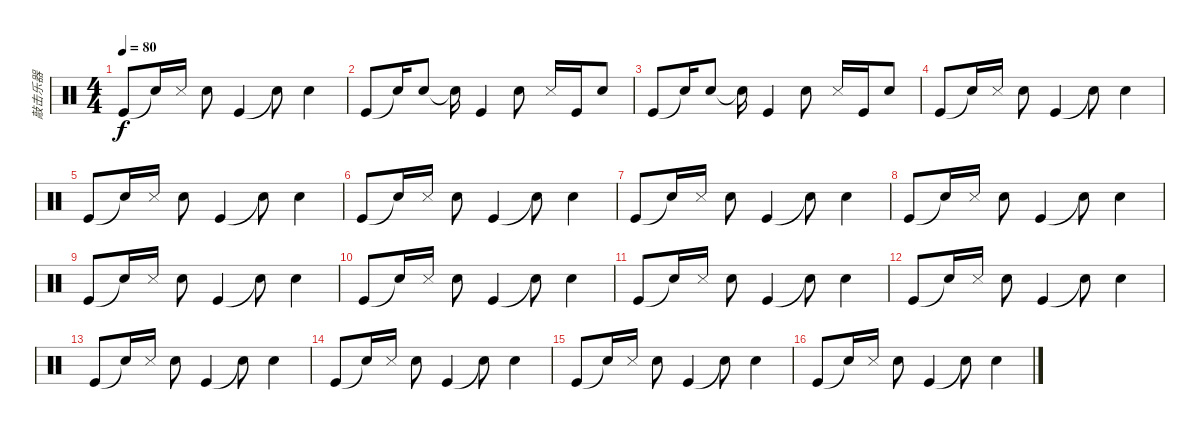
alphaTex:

\track ("敲击乐器" "敲击乐器") {instrument percussion}
\staff {score}
\articulation defaults
\ts (4 4)
\tempo 80
\clef neutral
\ks c "Kick (hit)".8{dy f} "Snare (hit)"{t}.16 "Metronome (hit)".16 "Metronome (bell)".8 "Kick (hit)".4 "Snare (hit)"{t}.8 "Metronome (bell)".4
|
"Kick (hit)".8 "Metronome (bell)"{t}.16 "Metronome (bell)".8 "Snare (hit)"{t}.16 "Kick (hit)".4 "Metronome (bell)".8 "Metronome (hit)".16 "Kick (hit)".16 "Metronome (bell)".8 |
"Kick (hit)".8 "Metronome (bell)"{t}.16 "Metronome (bell)".8 "Snare (hit)"{t}.16 "Kick (hit)".4 "Metronome (bell)".8 "Metronome (hit)".16 "Kick (hit)".16 "Metronome (bell)".8 |
"Kick (hit)".8 "Snare (hit)"{t}.16 "Metronome (hit)".16 "Metronome (bell)".8 "Kick (hit)".4 "Snare (hit)"{t}.8 "Metronome (bell)".4 |
"Kick (hit)".8 "Snare (hit)"{t}.16 "Metronome (hit)".16 "Metronome (bell)".8 "Kick (hit)".4 "Snare (hit)"{t}.8 "Metronome (bell)".4 |
"Kick (hit)".8 "Snare (hit)"{t}.16 "Metronome (hit)".16 "Metronome (bell)".8 "Kick (hit)".4 "Snare (hit)"{t}.8 "Metronome (bell)".4 |
"Kick (hit)".8 "Snare (hit)"{t}.16 "Metronome (hit)".16 "Metronome (bell)".8 "Kick (hit)".4 "Snare (hit)"{t}.8 "Metronome (bell)".4 |
"Kick (hit)".8 "Snare (hit)"{t}.16 "Metronome (hit)".16 "Metronome (bell)".8 "Kick (hit)".4 "Snare (hit)"{t}.8 "Metronome (bell)".4 |
"Kick (hit)".8 "Snare (hit)"{t}.16 "Metronome (hit)".16 "Metronome (bell)".8 "Kick (hit)".4 "Snare (hit)"{t}.8 "Metronome (bell)".4 |
"Kick (hit)".8 "Snare (hit)"{t}.16 "Metronome (hit)".16 "Metronome (bell)".8 "Kick (hit)".4 "Snare (hit)"{t}.8 "Metronome (bell)".4 |
"Kick (hit)".8 "Snare (hit)"{t}.16 "Metronome (hit)".16 "Metronome (bell)".8 "Kick (hit)".4 "Snare (hit)"{t}.8 "Metronome (bell)".4 |
"Kick (hit)".8 "Snare (hit)"{t}.16 "Metronome (hit)".16 "Metronome (bell)".8 "Kick (hit)".4 "Snare (hit)"{t}.8 "Metronome (bell)".4 |
"Kick (hit)".8 "Snare (hit)"{t}.16 "Metronome (hit)".16 "Metronome (bell)".8 "Kick (hit)".4 "Snare (hit)"{t}.8 "Metronome (bell)".4 |
"Kick (hit)".8 "Snare (hit)"{t}.16 "Metronome (hit)".16 "Metronome (bell)".8 "Kick (hit)".4 "Snare (hit)"{t}.8 "Metronome (bell)".4 |
"Kick (hit)".8 "Snare (hit)"{t}.16 "Metronome (hit)".16 "Metronome (bell)".8 "Kick (hit)".4 "Snare (hit)"{t}.8 "Metronome (bell)".4 |
"Kick (hit)".8 "Snare (hit)"{t}.16 "Metronome (hit)".16 "Metronome (bell)".8 "Kick (hit)".4 "Snare (hit)"{t}.8 "Metronome (bell)".4
